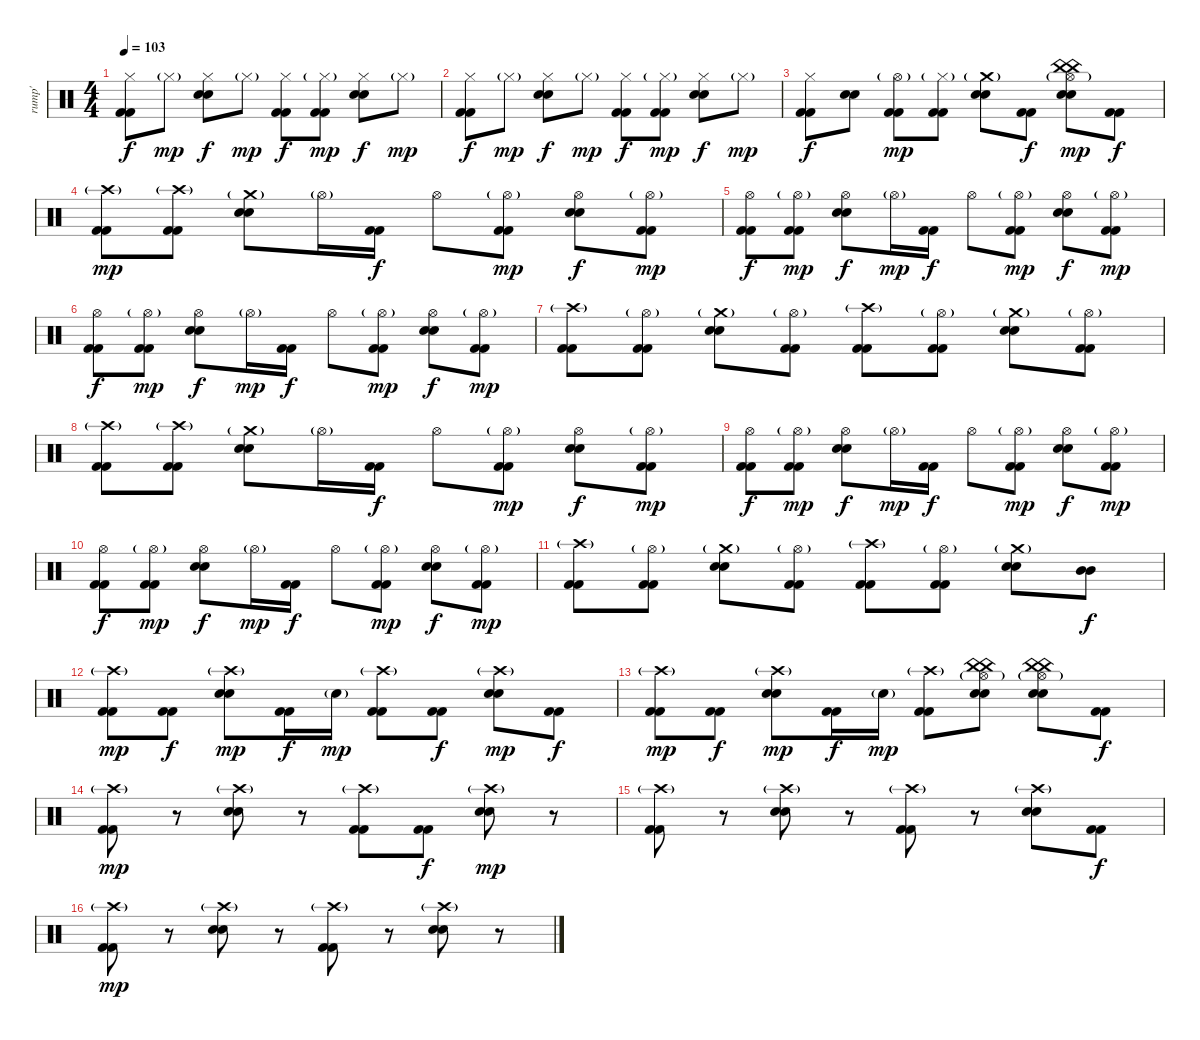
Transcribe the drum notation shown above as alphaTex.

\track ("rump'" "rump'") {instrument percussion}
\staff {score}
\articulation defaults
\ts (4 4)
\tempo 103
\clef neutral
\ks c
("Hi-Hat (closed)" "Kick (hit) 2" "Kick (hit) 2").8{dy f} "Hi-Hat (closed)"{g}.8{dy mp} ("Hi-Hat (closed)" "Electric Snare (hit)" "Electric Snare (hit)").8{dy f} "Hi-Hat (closed)"{g}.8{dy mp} ("Hi-Hat (closed)" "Kick (hit) 2" "Kick (hit) 2").8{dy f} ("Hi-Hat (closed)"{g} "Kick (hit) 2" "Kick (hit) 2").8{dy mp} ("Hi-Hat (closed)" "Electric Snare (hit)" "Electric Snare (hit)").8{dy f} "Hi-Hat (closed)"{g}.8{dy mp} |
("Hi-Hat (closed)" "Kick (hit) 2" "Kick (hit) 2").8{dy f} "Hi-Hat (closed)"{g}.8{dy mp} ("Hi-Hat (closed)" "Electric Snare (hit)" "Electric Snare (hit)").8{dy f} "Hi-Hat (closed)"{g}.8{dy mp} ("Hi-Hat (closed)" "Kick (hit) 2" "Kick (hit) 2").8{dy f} ("Hi-Hat (closed)"{g} "Kick (hit) 2" "Kick (hit) 2").8{dy mp} ("Hi-Hat (closed)" "Electric Snare (hit)" "Electric Snare (hit)").8{dy f} "Hi-Hat (closed)"{g}.8{dy mp} |
("Hi-Hat (closed)" "Kick (hit) 2" "Kick (hit) 2").8{dy f} ("Electric Snare (hit)" "Electric Snare (hit)").8 ("Hi-Hat (open)"{g} "Kick (hit) 2" "Kick (hit) 2").8{dy mp} ("Hi-Hat (closed)"{g} "Kick (hit) 2" "Kick (hit) 2").8 ("Crash medium (hit)"{g} "Electric Snare (hit)" "Electric Snare (hit)").8 ("Kick (hit) 2" "Kick (hit) 2").8{dy f} ("China (hit)" "China (hit)" "Hi-Hat (open)"{g} "Electric Snare (hit)" "Electric Snare (hit)").8{dy mp} ("Kick (hit) 2" "Kick (hit) 2").8{dy f} |
("Crash high (hit)"{g} "Kick (hit) 2" "Kick (hit) 2").8{dy mp} ("Crash high (hit)"{g} "Kick (hit) 2" "Kick (hit) 2").8 ("Crash medium (hit)"{g} "Electric Snare (hit)" "Electric Snare (hit)").8 "Hi-Hat (open)"{g}.16 ("Kick (hit) 2" "Kick (hit) 2").16{dy f} "Hi-Hat (open)".8 ("Hi-Hat (open)"{g} "Kick (hit) 2" "Kick (hit) 2").8{dy mp} ("Hi-Hat (open)" "Electric Snare (hit)" "Electric Snare (hit)").8{dy f} ("Hi-Hat (open)"{g} "Kick (hit) 2" "Kick (hit) 2").8{dy mp} |
("Hi-Hat (open)" "Kick (hit) 2" "Kick (hit) 2").8{dy f} ("Hi-Hat (open)"{g} "Kick (hit) 2" "Kick (hit) 2").8{dy mp} ("Hi-Hat (open)" "Electric Snare (hit)" "Electric Snare (hit)").8{dy f} "Hi-Hat (open)"{g}.16{dy mp} ("Kick (hit) 2" "Kick (hit) 2").16{dy f} "Hi-Hat (open)".8 ("Hi-Hat (open)"{g} "Kick (hit) 2" "Kick (hit) 2").8{dy mp} ("Hi-Hat (open)" "Electric Snare (hit)" "Electric Snare (hit)").8{dy f} ("Hi-Hat (open)"{g} "Kick (hit) 2" "Kick (hit) 2").8{dy mp} |
("Hi-Hat (open)" "Kick (hit) 2" "Kick (hit) 2").8{dy f} ("Hi-Hat (open)"{g} "Kick (hit) 2" "Kick (hit) 2").8{dy mp} ("Hi-Hat (open)" "Electric Snare (hit)" "Electric Snare (hit)").8{dy f} "Hi-Hat (open)"{g}.16{dy mp} ("Kick (hit) 2" "Kick (hit) 2").16{dy f} "Hi-Hat (open)".8 ("Hi-Hat (open)"{g} "Kick (hit) 2" "Kick (hit) 2").8{dy mp} ("Hi-Hat (open)" "Electric Snare (hit)" "Electric Snare (hit)").8{dy f} ("Hi-Hat (open)"{g} "Kick (hit) 2" "Kick (hit) 2").8{dy mp} |
("Crash high (hit)"{g} "Kick (hit) 2" "Kick (hit) 2").8 ("Hi-Hat (open)"{g} "Kick (hit) 2" "Kick (hit) 2").8 ("Crash medium (hit)"{g} "Electric Snare (hit)" "Electric Snare (hit)").8 ("Hi-Hat (open)"{g} "Kick (hit) 2" "Kick (hit) 2").8 ("Crash high (hit)"{g} "Kick (hit) 2" "Kick (hit) 2").8 ("Hi-Hat (open)"{g} "Kick (hit) 2" "Kick (hit) 2").8 ("Crash medium (hit)"{g} "Electric Snare (hit)" "Electric Snare (hit)").8 ("Hi-Hat (open)"{g} "Kick (hit) 2" "Kick (hit) 2").8 |
("Crash high (hit)"{g} "Kick (hit) 2" "Kick (hit) 2").8 ("Crash high (hit)"{g} "Kick (hit) 2" "Kick (hit) 2").8 ("Crash medium (hit)"{g} "Electric Snare (hit)" "Electric Snare (hit)").8 "Hi-Hat (open)"{g}.16 ("Kick (hit) 2" "Kick (hit) 2").16{dy f} "Hi-Hat (open)".8 ("Hi-Hat (open)"{g} "Kick (hit) 2" "Kick (hit) 2").8{dy mp} ("Hi-Hat (open)" "Electric Snare (hit)" "Electric Snare (hit)").8{dy f} ("Hi-Hat (open)"{g} "Kick (hit) 2" "Kick (hit) 2").8{dy mp} |
("Hi-Hat (open)" "Kick (hit) 2" "Kick (hit) 2").8{dy f} ("Hi-Hat (open)"{g} "Kick (hit) 2" "Kick (hit) 2").8{dy mp} ("Hi-Hat (open)" "Electric Snare (hit)" "Electric Snare (hit)").8{dy f} "Hi-Hat (open)"{g}.16{dy mp} ("Kick (hit) 2" "Kick (hit) 2").16{dy f} "Hi-Hat (open)".8 ("Hi-Hat (open)"{g} "Kick (hit) 2" "Kick (hit) 2").8{dy mp} ("Hi-Hat (open)" "Electric Snare (hit)" "Electric Snare (hit)").8{dy f} ("Hi-Hat (open)"{g} "Kick (hit) 2" "Kick (hit) 2").8{dy mp} |
("Hi-Hat (open)" "Kick (hit) 2" "Kick (hit) 2").8{dy f} ("Hi-Hat (open)"{g} "Kick (hit) 2" "Kick (hit) 2").8{dy mp} ("Hi-Hat (open)" "Electric Snare (hit)" "Electric Snare (hit)").8{dy f} "Hi-Hat (open)"{g}.16{dy mp} ("Kick (hit) 2" "Kick (hit) 2").16{dy f} "Hi-Hat (open)".8 ("Hi-Hat (open)"{g} "Kick (hit) 2" "Kick (hit) 2").8{dy mp} ("Hi-Hat (open)" "Electric Snare (hit)" "Electric Snare (hit)").8{dy f} ("Hi-Hat (open)"{g} "Kick (hit) 2" "Kick (hit) 2").8{dy mp} |
("Crash high (hit)"{g} "Kick (hit) 2" "Kick (hit) 2").8 ("Hi-Hat (open)"{g} "Kick (hit) 2" "Kick (hit) 2").8 ("Crash medium (hit)"{g} "Electric Snare (hit)" "Electric Snare (hit)").8 ("Hi-Hat (open)"{g} "Kick (hit) 2" "Kick (hit) 2").8 ("Crash high (hit)"{g} "Kick (hit) 2" "Kick (hit) 2").8 ("Hi-Hat (open)"{g} "Kick (hit) 2" "Kick (hit) 2").8 ("Crash medium (hit)"{g} "Electric Snare (hit)" "Electric Snare (hit)").8 ("Mid Tom (hit)" "Mid Tom (hit)").8{dy f} |
("Crash high (hit)"{g} "Kick (hit) 2" "Kick (hit) 2").8{dy mp} ("Kick (hit) 2" "Kick (hit) 2").8{dy f} ("Crash high (hit)"{g} "Electric Snare (hit)" "Electric Snare (hit)").8{dy mp} ("Kick (hit) 2" "Kick (hit) 2").16{dy f} "Electric Snare (hit)"{g}.16{dy mp} ("Crash high (hit)"{g} "Kick (hit) 2" "Kick (hit) 2").8 ("Kick (hit) 2" "Kick (hit) 2").8{dy f} ("Crash high (hit)"{g} "Electric Snare (hit)" "Electric Snare (hit)").8{dy mp} ("Kick (hit) 2" "Kick (hit) 2").8{dy f} |
("Crash high (hit)"{g} "Kick (hit) 2" "Kick (hit) 2").8{dy mp} ("Kick (hit) 2" "Kick (hit) 2").8{dy f} ("Crash high (hit)"{g} "Electric Snare (hit)" "Electric Snare (hit)").8{dy mp} ("Kick (hit) 2" "Kick (hit) 2").16{dy f} "Electric Snare (hit)"{g}.16{dy mp} ("Crash high (hit)"{g} "Kick (hit) 2" "Kick (hit) 2").8 ("China (hit)" "China (hit)" "Hi-Hat (open)"{g} "Electric Snare (hit)" "Electric Snare (hit)").8 ("China (hit)" "China (hit)" "Hi-Hat (open)"{g} "Electric Snare (hit)" "Electric Snare (hit)").8 ("Kick (hit) 2" "Kick (hit) 2").8{dy f} |
("Crash high (hit)"{g} "Kick (hit) 2" "Kick (hit) 2").8{dy mp} r.8 ("Crash high (hit)"{g} "Electric Snare (hit)" "Electric Snare (hit)").8 r.8 ("Crash high (hit)"{g} "Kick (hit) 2" "Kick (hit) 2").8 ("Kick (hit) 2" "Kick (hit) 2").8{dy f} ("Crash high (hit)"{g} "Electric Snare (hit)" "Electric Snare (hit)").8{dy mp} r.8 |
("Crash high (hit)"{g} "Kick (hit) 2" "Kick (hit) 2").8 r.8 ("Crash high (hit)"{g} "Electric Snare (hit)" "Electric Snare (hit)").8 r.8 ("Crash high (hit)"{g} "Kick (hit) 2" "Kick (hit) 2").8 r.8 ("Crash high (hit)"{g} "Electric Snare (hit)" "Electric Snare (hit)").8 ("Kick (hit) 2" "Kick (hit) 2").8{dy f} |
("Crash high (hit)"{g} "Kick (hit) 2" "Kick (hit) 2").8{dy mp} r.8 ("Crash high (hit)"{g} "Electric Snare (hit)" "Electric Snare (hit)").8 r.8 ("Crash high (hit)"{g} "Kick (hit) 2" "Kick (hit) 2").8 r.8 ("Crash high (hit)"{g} "Electric Snare (hit)" "Electric Snare (hit)").8 r.8
